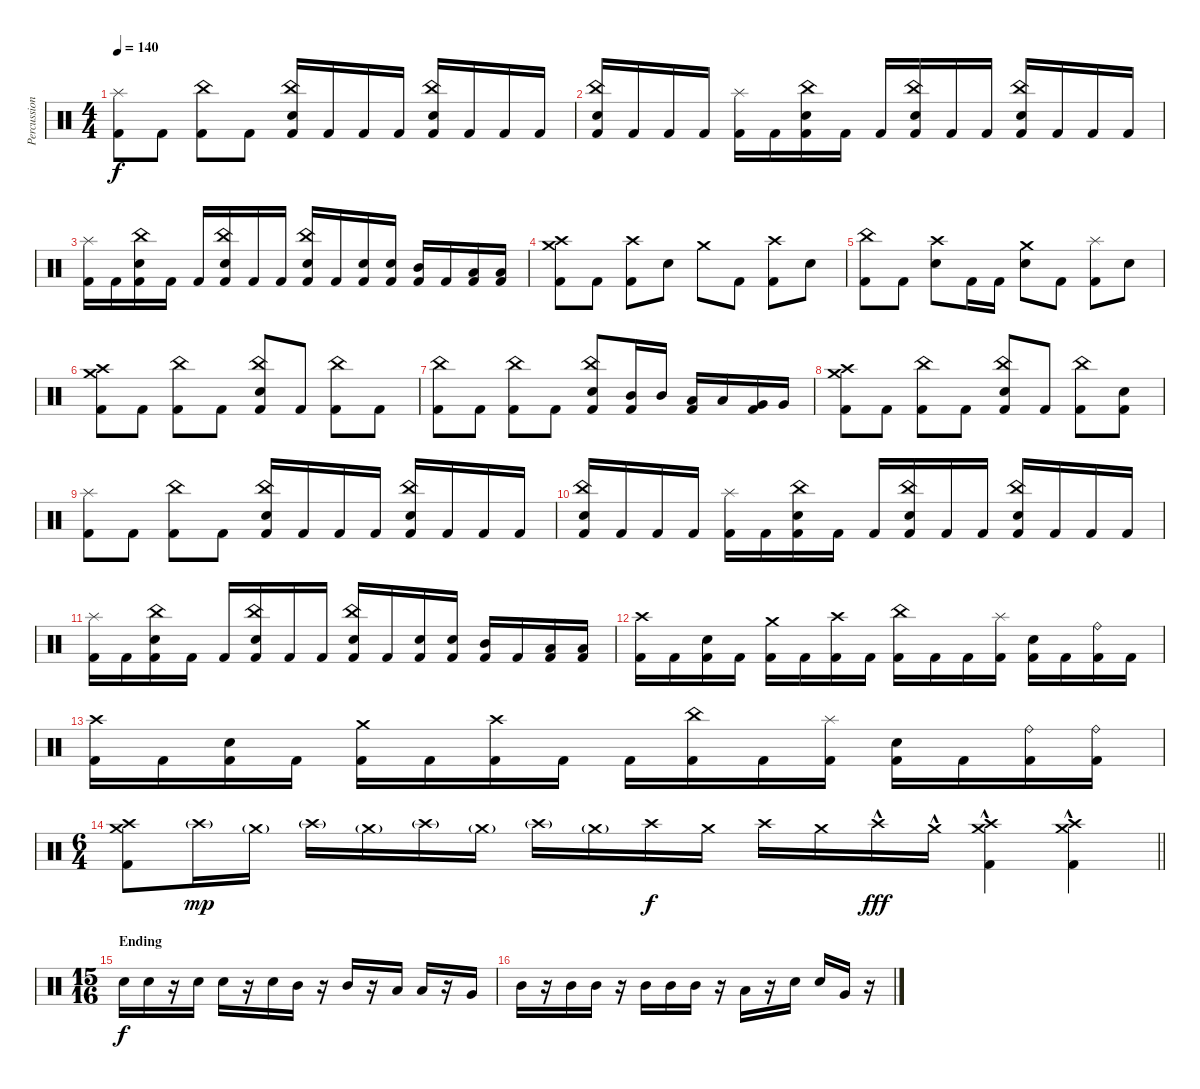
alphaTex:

\track ("Percussion" "Percussion") {instrument percussion}
\staff {score}
\articulation defaults
\ts (4 4)
\tempo 140
\clef neutral
\ks c
("Splash (hit)" "Kick (hit) 2").8{dy f} "Kick (hit) 2".8 ("China (hit)" "Kick (hit) 2").8 "Kick (hit) 2".8 ("China (hit)" "Electric Snare (hit)" "Kick (hit) 2").16 "Kick (hit) 2".16 "Kick (hit) 2".16 "Kick (hit) 2".16 ("China (hit)" "Electric Snare (hit)" "Kick (hit) 2").16 "Kick (hit) 2".16 "Kick (hit) 2".16 "Kick (hit) 2".16 |
("China (hit)" "Electric Snare (hit)" "Kick (hit) 2").16 "Kick (hit) 2".16 "Kick (hit) 2".16 "Kick (hit) 2".16 ("Splash (hit)" "Kick (hit) 2").16 "Kick (hit) 2".16 ("China (hit)" "Electric Snare (hit)" "Kick (hit) 2").16 "Kick (hit) 2".16 "Kick (hit) 2".16 ("China (hit)" "Electric Snare (hit)" "Kick (hit) 2").16 "Kick (hit) 2".16 "Kick (hit) 2".16 ("China (hit)" "Electric Snare (hit)" "Kick (hit) 2").16 "Kick (hit) 2".16 "Kick (hit) 2".16 "Kick (hit) 2".16 |
("Splash (hit)" "Kick (hit) 2").16 "Kick (hit) 2".16 ("China (hit)" "Electric Snare (hit)" "Kick (hit) 2").16 "Kick (hit) 2".16 "Kick (hit) 2".16 ("China (hit)" "Electric Snare (hit)" "Kick (hit) 2").16 "Kick (hit) 2".16 "Kick (hit) 2".16 ("China (hit)" "Electric Snare (hit)" "Kick (hit) 2").16 "Kick (hit) 2".16 ("Electric Snare (hit)" "Kick (hit) 2").16 ("Electric Snare (hit)" "Kick (hit) 2").16 ("Mid Tom (hit)" "Kick (hit) 2").16 "Kick (hit) 2".16 ("Low Tom (hit)" "Kick (hit) 2").16 ("Low Tom (hit)" "Kick (hit) 2").16 |
("Crash high (hit)" "Crash medium (hit)" "Kick (hit) 2").8 "Kick (hit) 2".8 ("Crash high (hit)" "Kick (hit) 2").8 "Electric Snare (hit)".8 "Crash medium (hit)".8 "Kick (hit) 2".8 ("Crash high (hit)" "Kick (hit) 2").8 "Electric Snare (hit)".8 |
("China (hit)" "Kick (hit) 2").8 "Kick (hit) 2".8 ("Crash high (hit)" "Electric Snare (hit)").8 "Kick (hit) 2".16 "Kick (hit) 2".16 ("Crash medium (hit)" "Electric Snare (hit)").8 "Kick (hit) 2".8 ("Splash (hit)" "Kick (hit) 2").8 "Electric Snare (hit)".8 |
("Crash high (hit)" "Crash medium (hit)" "Kick (hit) 2").8 "Kick (hit) 2".8 ("China (hit)" "Kick (hit) 2").8 "Kick (hit) 2".8 ("China (hit)" "Electric Snare (hit)" "Kick (hit) 2").8 "Kick (hit) 2".8 ("China (hit)" "Kick (hit) 2").8 "Kick (hit) 2".8 |
("China (hit)" "Kick (hit) 2").8 "Kick (hit) 2".8 ("China (hit)" "Kick (hit) 2").8 "Kick (hit) 2".8 ("China (hit)" "Electric Snare (hit)" "Kick (hit) 2").8 ("Mid Tom (hit)" "Kick (hit) 2").16 "Mid Tom (hit)".16 ("Low Tom (hit)" "Kick (hit) 2").16 "Low Tom (hit)".16 ("Very Low Tom (hit)" "Kick (hit) 2").16 "Very Low Tom (hit)".16 |
("Crash high (hit)" "Crash medium (hit)" "Kick (hit) 2").8 "Kick (hit) 2".8 ("China (hit)" "Kick (hit) 2").8 "Kick (hit) 2".8 ("China (hit)" "Electric Snare (hit)" "Kick (hit) 2").8 "Kick (hit) 2".8 ("China (hit)" "Kick (hit) 2").8 ("Electric Snare (hit)" "Kick (hit) 2").8 |
("Splash (hit)" "Kick (hit) 2").8 "Kick (hit) 2".8 ("China (hit)" "Kick (hit) 2").8 "Kick (hit) 2".8 ("China (hit)" "Electric Snare (hit)" "Kick (hit) 2").16 "Kick (hit) 2".16 "Kick (hit) 2".16 "Kick (hit) 2".16 ("China (hit)" "Electric Snare (hit)" "Kick (hit) 2").16 "Kick (hit) 2".16 "Kick (hit) 2".16 "Kick (hit) 2".16 |
("China (hit)" "Electric Snare (hit)" "Kick (hit) 2").16 "Kick (hit) 2".16 "Kick (hit) 2".16 "Kick (hit) 2".16 ("Splash (hit)" "Kick (hit) 2").16 "Kick (hit) 2".16 ("China (hit)" "Electric Snare (hit)" "Kick (hit) 2").16 "Kick (hit) 2".16 "Kick (hit) 2".16 ("China (hit)" "Electric Snare (hit)" "Kick (hit) 2").16 "Kick (hit) 2".16 "Kick (hit) 2".16 ("China (hit)" "Electric Snare (hit)" "Kick (hit) 2").16 "Kick (hit) 2".16 "Kick (hit) 2".16 "Kick (hit) 2".16 |
("Splash (hit)" "Kick (hit) 2").16 "Kick (hit) 2".16 ("China (hit)" "Electric Snare (hit)" "Kick (hit) 2").16 "Kick (hit) 2".16 "Kick (hit) 2".16 ("China (hit)" "Electric Snare (hit)" "Kick (hit) 2").16 "Kick (hit) 2".16 "Kick (hit) 2".16 ("China (hit)" "Electric Snare (hit)" "Kick (hit) 2").16 "Kick (hit) 2".16 ("Electric Snare (hit)" "Kick (hit) 2").16 ("Electric Snare (hit)" "Kick (hit) 2").16 ("Mid Tom (hit)" "Kick (hit) 2").16 "Kick (hit) 2".16 ("Low Tom (hit)" "Kick (hit) 2").16 ("Low Tom (hit)" "Kick (hit) 2").16 |
("Crash high (hit)" "Kick (hit) 2").16 "Kick (hit) 2".16 ("Electric Snare (hit)" "Kick (hit) 2").16 "Kick (hit) 2".16 ("Crash medium (hit)" "Kick (hit) 2").16 "Kick (hit) 2".16 ("Crash high (hit)" "Kick (hit) 2").16 "Kick (hit) 2".16 ("China (hit)" "Kick (hit) 2").16 "Kick (hit) 2".16 "Kick (hit) 2".16 ("Splash (hit)" "Kick (hit) 2").16 ("Electric Snare (hit)" "Kick (hit) 2").16 "Kick (hit) 2".16 ("Ride (bell)" "Kick (hit) 2").16 "Kick (hit) 2".16 |
("Crash high (hit)" "Kick (hit) 2").16 "Kick (hit) 2".16 ("Electric Snare (hit)" "Kick (hit) 2").16 "Kick (hit) 2".16 ("Crash medium (hit)" "Kick (hit) 2").16 "Kick (hit) 2".16 ("Crash high (hit)" "Kick (hit) 2").16 "Kick (hit) 2".16 "Kick (hit) 2".16 ("China (hit)" "Kick (hit) 2").16 "Kick (hit) 2".16 ("Splash (hit)" "Kick (hit) 2").16 ("Electric Snare (hit)" "Kick (hit) 2").16 "Kick (hit) 2".16 ("Ride (bell)" "Kick (hit) 2").16 ("Ride (bell)" "Kick (hit) 2").16 |
\ts (6 4)
\barLineRight lightlight
("Crash high (hit)" "Crash medium (hit)" "Kick (hit) 2").8 "Crash high (hit)"{g}.16{dy mp} "Crash medium (hit)"{g}.16 "Crash high (hit)"{g}.16 "Crash medium (hit)"{g}.16 "Crash high (hit)"{g}.16 "Crash medium (hit)"{g}.16 "Crash high (hit)"{g}.16 "Crash medium (hit)"{g}.16 "Crash high (hit)".16{dy f} "Crash medium (hit)".16 "Crash high (hit)".16 "Crash medium (hit)".16 "Crash high (hit)"{hac}.16{dy fff} "Crash medium (hit)"{hac}.16 ("Crash high (hit)"{hac} "Crash medium (hit)"{hac} "Kick (hit) 2"{hac}).4 ("Crash high (hit)"{hac} "Crash medium (hit)"{hac} "Kick (hit) 2"{hac}).4 |
\ts (15 16)
\section ("" "Ending")
"Electric Snare (hit)".16{dy f} "Electric Snare (hit)".16 r.16 "Electric Snare (hit)".16 "Electric Snare (hit)".16 r.16 "Electric Snare (hit)".16 "Mid Tom (hit)".16 r.16 "Mid Tom (hit)".16 r.16 "Low Tom (hit)".16 "Low Tom (hit)".16 r.16 "Very Low Tom (hit)".16 |
"Mid Tom (hit)".16 r.16 "Mid Tom (hit)".16 "Mid Tom (hit)".16 r.16 "Mid Tom (hit)".16 "Mid Tom (hit)".16 "Mid Tom (hit)".16 r.16 "Low Tom (hit)".16 r.16 "Electric Snare (hit)".16 "Electric Snare (hit)".16 "Very Low Tom (hit)".16 r.16
